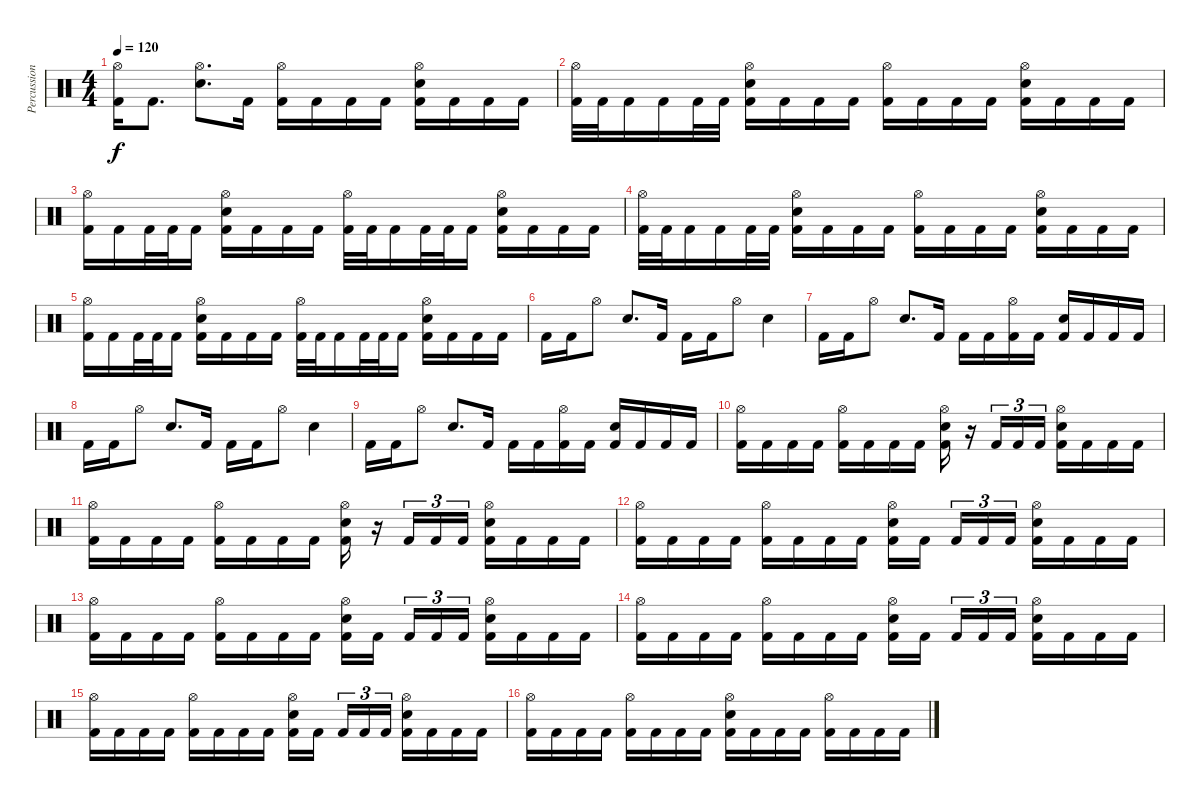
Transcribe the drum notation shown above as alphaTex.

\track ("Percussion" "Percussion") {instrument percussion}
\staff {score}
\articulation defaults
\ts (4 4)
\tempo 120
\clef neutral
\ks c
("Hi-Hat (open)" "Kick (hit) 2").16{dy f} "Kick (hit) 2".8{d} ("Hi-Hat (open)" "Snare (hit) 2").8{d} "Kick (hit) 2".16 ("Hi-Hat (open)" "Kick (hit) 2").16 "Kick (hit) 2".16 "Kick (hit) 2".16 "Kick (hit) 2".16 ("Hi-Hat (open)" "Snare (hit) 2" "Kick (hit) 2").16 "Kick (hit) 2".16 "Kick (hit) 2".16 "Kick (hit) 2".16 |
("Hi-Hat (open)" "Kick (hit) 2").32 "Kick (hit) 2".32 "Kick (hit) 2".16 "Kick (hit) 2".16 "Kick (hit) 2".32 "Kick (hit) 2".32 ("Hi-Hat (open)" "Snare (hit) 2" "Kick (hit) 2").16 "Kick (hit) 2".16 "Kick (hit) 2".16 "Kick (hit) 2".16 ("Hi-Hat (open)" "Kick (hit) 2").16 "Kick (hit) 2".16 "Kick (hit) 2".16 "Kick (hit) 2".16 ("Hi-Hat (open)" "Snare (hit) 2" "Kick (hit) 2").16 "Kick (hit) 2".16 "Kick (hit) 2".16 "Kick (hit) 2".16 |
("Hi-Hat (open)" "Kick (hit) 2").16 "Kick (hit) 2".16 "Kick (hit) 2".32 "Kick (hit) 2".32 "Kick (hit) 2".16 ("Hi-Hat (open)" "Snare (hit) 2" "Kick (hit) 2").16 "Kick (hit) 2".16 "Kick (hit) 2".16 "Kick (hit) 2".16 ("Hi-Hat (open)" "Kick (hit) 2").32 "Kick (hit) 2".32 "Kick (hit) 2".16 "Kick (hit) 2".32 "Kick (hit) 2".32 "Kick (hit) 2".16 ("Hi-Hat (open)" "Snare (hit) 2" "Kick (hit) 2").16 "Kick (hit) 2".16 "Kick (hit) 2".16 "Kick (hit) 2".16 |
("Hi-Hat (open)" "Kick (hit) 2").32 "Kick (hit) 2".32 "Kick (hit) 2".16 "Kick (hit) 2".16 "Kick (hit) 2".32 "Kick (hit) 2".32 ("Hi-Hat (open)" "Snare (hit) 2" "Kick (hit) 2").16 "Kick (hit) 2".16 "Kick (hit) 2".16 "Kick (hit) 2".16 ("Hi-Hat (open)" "Kick (hit) 2").16 "Kick (hit) 2".16 "Kick (hit) 2".16 "Kick (hit) 2".16 ("Hi-Hat (open)" "Snare (hit) 2" "Kick (hit) 2").16 "Kick (hit) 2".16 "Kick (hit) 2".16 "Kick (hit) 2".16 |
("Hi-Hat (open)" "Kick (hit) 2").16 "Kick (hit) 2".16 "Kick (hit) 2".32 "Kick (hit) 2".32 "Kick (hit) 2".16 ("Hi-Hat (open)" "Snare (hit) 2" "Kick (hit) 2").16 "Kick (hit) 2".16 "Kick (hit) 2".16 "Kick (hit) 2".16 ("Hi-Hat (open)" "Kick (hit) 2").32 "Kick (hit) 2".32 "Kick (hit) 2".16 "Kick (hit) 2".32 "Kick (hit) 2".32 "Kick (hit) 2".16 ("Hi-Hat (open)" "Snare (hit) 2" "Kick (hit) 2").16 "Kick (hit) 2".16 "Kick (hit) 2".16 "Kick (hit) 2".16 |
"Kick (hit) 2".16 "Kick (hit) 2".16 "Hi-Hat (open)".8 "Snare (hit) 2".8{d} "Kick (hit) 2".16 "Kick (hit) 2".16 "Kick (hit) 2".16 "Hi-Hat (open)".8 "Snare (hit) 2".4 |
"Kick (hit) 2".16 "Kick (hit) 2".16 "Hi-Hat (open)".8 "Snare (hit) 2".8{d} "Kick (hit) 2".16 "Kick (hit) 2".16 "Kick (hit) 2".16 ("Hi-Hat (open)" "Kick (hit) 2").16 "Kick (hit) 2".16 ("Snare (hit) 2" "Kick (hit) 2").16 "Kick (hit) 2".16 "Kick (hit) 2".16 "Kick (hit) 2".16 |
"Kick (hit) 2".16 "Kick (hit) 2".16 "Hi-Hat (open)".8 "Snare (hit) 2".8{d} "Kick (hit) 2".16 "Kick (hit) 2".16 "Kick (hit) 2".16 "Hi-Hat (open)".8 "Snare (hit) 2".4 |
"Kick (hit) 2".16 "Kick (hit) 2".16 "Hi-Hat (open)".8 "Snare (hit) 2".8{d} "Kick (hit) 2".16 "Kick (hit) 2".16 "Kick (hit) 2".16 ("Hi-Hat (open)" "Kick (hit) 2").16 "Kick (hit) 2".16 ("Snare (hit) 2" "Kick (hit) 2").16 "Kick (hit) 2".16 "Kick (hit) 2".16 "Kick (hit) 2".16 |
("Hi-Hat (open)" "Kick (hit) 2").16 "Kick (hit) 2".16 "Kick (hit) 2".16 "Kick (hit) 2".16 ("Hi-Hat (open)" "Kick (hit) 2").16 "Kick (hit) 2".16 "Kick (hit) 2".16 "Kick (hit) 2".16 ("Hi-Hat (open)" "Snare (hit) 2" "Kick (hit) 2").16 r.16 "Kick (hit) 2".16{tu (3 2)} "Kick (hit) 2".16{tu (3 2)} "Kick (hit) 2".16{tu (3 2)} ("Hi-Hat (open)" "Snare (hit) 2" "Kick (hit) 2").16 "Kick (hit) 2".16 "Kick (hit) 2".16 "Kick (hit) 2".16 |
("Hi-Hat (open)" "Kick (hit) 2").16 "Kick (hit) 2".16 "Kick (hit) 2".16 "Kick (hit) 2".16 ("Hi-Hat (open)" "Kick (hit) 2").16 "Kick (hit) 2".16 "Kick (hit) 2".16 "Kick (hit) 2".16 ("Hi-Hat (open)" "Snare (hit) 2" "Kick (hit) 2").16 r.16 "Kick (hit) 2".16{tu (3 2)} "Kick (hit) 2".16{tu (3 2)} "Kick (hit) 2".16{tu (3 2)} ("Hi-Hat (open)" "Snare (hit) 2" "Kick (hit) 2").16 "Kick (hit) 2".16 "Kick (hit) 2".16 "Kick (hit) 2".16 |
("Hi-Hat (open)" "Kick (hit) 2").16 "Kick (hit) 2".16 "Kick (hit) 2".16 "Kick (hit) 2".16 ("Hi-Hat (open)" "Kick (hit) 2").16 "Kick (hit) 2".16 "Kick (hit) 2".16 "Kick (hit) 2".16 ("Hi-Hat (open)" "Snare (hit) 2" "Kick (hit) 2").16 "Kick (hit) 2".16{beam splitsecondary} "Kick (hit) 2".16{tu (3 2)} "Kick (hit) 2".16{tu (3 2)} "Kick (hit) 2".16{tu (3 2)} ("Hi-Hat (open)" "Snare (hit) 2" "Kick (hit) 2").16 "Kick (hit) 2".16 "Kick (hit) 2".16 "Kick (hit) 2".16 |
("Hi-Hat (open)" "Kick (hit) 2").16 "Kick (hit) 2".16 "Kick (hit) 2".16 "Kick (hit) 2".16 ("Hi-Hat (open)" "Kick (hit) 2").16 "Kick (hit) 2".16 "Kick (hit) 2".16 "Kick (hit) 2".16 ("Hi-Hat (open)" "Snare (hit) 2" "Kick (hit) 2").16 "Kick (hit) 2".16{beam splitsecondary} "Kick (hit) 2".16{tu (3 2)} "Kick (hit) 2".16{tu (3 2)} "Kick (hit) 2".16{tu (3 2)} ("Hi-Hat (open)" "Snare (hit) 2" "Kick (hit) 2").16 "Kick (hit) 2".16 "Kick (hit) 2".16 "Kick (hit) 2".16 |
("Hi-Hat (open)" "Kick (hit) 2").16 "Kick (hit) 2".16 "Kick (hit) 2".16 "Kick (hit) 2".16 ("Hi-Hat (open)" "Kick (hit) 2").16 "Kick (hit) 2".16 "Kick (hit) 2".16 "Kick (hit) 2".16 ("Hi-Hat (open)" "Snare (hit) 2" "Kick (hit) 2").16 "Kick (hit) 2".16{beam splitsecondary} "Kick (hit) 2".16{tu (3 2)} "Kick (hit) 2".16{tu (3 2)} "Kick (hit) 2".16{tu (3 2)} ("Hi-Hat (open)" "Snare (hit) 2" "Kick (hit) 2").16 "Kick (hit) 2".16 "Kick (hit) 2".16 "Kick (hit) 2".16 |
("Hi-Hat (open)" "Kick (hit) 2").16 "Kick (hit) 2".16 "Kick (hit) 2".16 "Kick (hit) 2".16 ("Hi-Hat (open)" "Kick (hit) 2").16 "Kick (hit) 2".16 "Kick (hit) 2".16 "Kick (hit) 2".16 ("Hi-Hat (open)" "Snare (hit) 2" "Kick (hit) 2").16 "Kick (hit) 2".16{beam splitsecondary} "Kick (hit) 2".16{tu (3 2)} "Kick (hit) 2".16{tu (3 2)} "Kick (hit) 2".16{tu (3 2)} ("Hi-Hat (open)" "Snare (hit) 2" "Kick (hit) 2").16 "Kick (hit) 2".16 "Kick (hit) 2".16 "Kick (hit) 2".16 |
("Hi-Hat (open)" "Kick (hit) 2").16 "Kick (hit) 2".16 "Kick (hit) 2".16 "Kick (hit) 2".16 ("Hi-Hat (open)" "Kick (hit) 2").16 "Kick (hit) 2".16 "Kick (hit) 2".16 "Kick (hit) 2".16 ("Hi-Hat (open)" "Snare (hit) 2" "Kick (hit) 2").16 "Kick (hit) 2".16 "Kick (hit) 2".16 "Kick (hit) 2".16 ("Hi-Hat (open)" "Kick (hit) 2").16 "Kick (hit) 2".16 "Kick (hit) 2".16 "Kick (hit) 2".16
